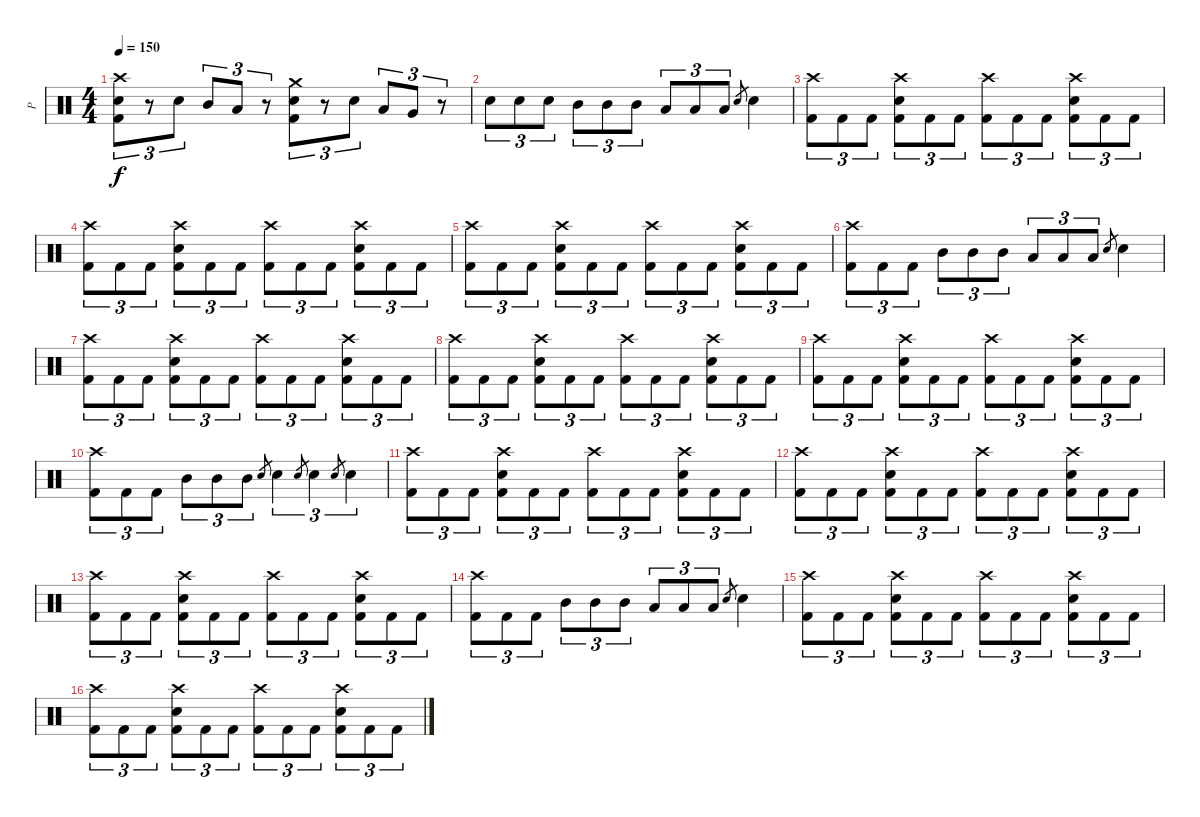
\track ("P" "P") {instrument percussion}
\staff {score}
\articulation defaults
\ts (4 4)
\tempo 150
\clef neutral
\ks c
("Crash high (hit)" "Electric Snare (hit)" "Kick (hit) 2").8{tu (3 2) dy f} r.8{tu (3 2)} "Electric Snare (hit)".8{tu (3 2)} "Mid Tom (hit)".8{tu (3 2)} "Low Tom (hit)".8{tu (3 2)} r.8{tu (3 2)} ("Crash medium (hit)" "Electric Snare (hit)" "Kick (hit) 2").8{tu (3 2)} r.8{tu (3 2)} "Electric Snare (hit)".8{tu (3 2)} "Low Tom (hit)".8{tu (3 2)} "Very Low Tom (hit)".8{tu (3 2)} r.8{tu (3 2)} |
"Electric Snare (hit)".8{tu (3 2)} "Electric Snare (hit)".8{tu (3 2)} "Electric Snare (hit)".8{tu (3 2)} "Mid Tom (hit)".8{tu (3 2)} "Mid Tom (hit)".8{tu (3 2)} "Mid Tom (hit)".8{tu (3 2)} "Low Tom (hit)".8{tu (3 2)} "Low Tom (hit)".8{tu (3 2)} "Low Tom (hit)".8{tu (3 2)} "Electric Snare (hit)".8{gr} "Electric Snare (hit)".4 |
("Crash high (hit)" "Kick (hit) 2").8{tu (3 2)} "Kick (hit) 2".8{tu (3 2)} "Kick (hit) 2".8{tu (3 2)} ("Crash high (hit)" "Electric Snare (hit)" "Kick (hit) 2").8{tu (3 2)} "Kick (hit) 2".8{tu (3 2)} "Kick (hit) 2".8{tu (3 2)} ("Crash high (hit)" "Kick (hit) 2").8{tu (3 2)} "Kick (hit) 2".8{tu (3 2)} "Kick (hit) 2".8{tu (3 2)} ("Crash high (hit)" "Electric Snare (hit)" "Kick (hit) 2").8{tu (3 2)} "Kick (hit) 2".8{tu (3 2)} "Kick (hit) 2".8{tu (3 2)} |
("Crash high (hit)" "Kick (hit) 2").8{tu (3 2)} "Kick (hit) 2".8{tu (3 2)} "Kick (hit) 2".8{tu (3 2)} ("Crash high (hit)" "Electric Snare (hit)" "Kick (hit) 2").8{tu (3 2)} "Kick (hit) 2".8{tu (3 2)} "Kick (hit) 2".8{tu (3 2)} ("Crash high (hit)" "Kick (hit) 2").8{tu (3 2)} "Kick (hit) 2".8{tu (3 2)} "Kick (hit) 2".8{tu (3 2)} ("Crash high (hit)" "Electric Snare (hit)" "Kick (hit) 2").8{tu (3 2)} "Kick (hit) 2".8{tu (3 2)} "Kick (hit) 2".8{tu (3 2)} |
("Crash high (hit)" "Kick (hit) 2").8{tu (3 2)} "Kick (hit) 2".8{tu (3 2)} "Kick (hit) 2".8{tu (3 2)} ("Crash high (hit)" "Electric Snare (hit)" "Kick (hit) 2").8{tu (3 2)} "Kick (hit) 2".8{tu (3 2)} "Kick (hit) 2".8{tu (3 2)} ("Crash high (hit)" "Kick (hit) 2").8{tu (3 2)} "Kick (hit) 2".8{tu (3 2)} "Kick (hit) 2".8{tu (3 2)} ("Crash high (hit)" "Electric Snare (hit)" "Kick (hit) 2").8{tu (3 2)} "Kick (hit) 2".8{tu (3 2)} "Kick (hit) 2".8{tu (3 2)} |
("Crash high (hit)" "Kick (hit) 2").8{tu (3 2)} "Kick (hit) 2".8{tu (3 2)} "Kick (hit) 2".8{tu (3 2)} "Mid Tom (hit)".8{tu (3 2)} "Mid Tom (hit)".8{tu (3 2)} "Mid Tom (hit)".8{tu (3 2)} "Low Tom (hit)".8{tu (3 2)} "Low Tom (hit)".8{tu (3 2)} "Low Tom (hit)".8{tu (3 2)} "Electric Snare (hit)".8{gr} "Electric Snare (hit)".4 |
("Crash high (hit)" "Kick (hit) 2").8{tu (3 2)} "Kick (hit) 2".8{tu (3 2)} "Kick (hit) 2".8{tu (3 2)} ("Crash high (hit)" "Electric Snare (hit)" "Kick (hit) 2").8{tu (3 2)} "Kick (hit) 2".8{tu (3 2)} "Kick (hit) 2".8{tu (3 2)} ("Crash high (hit)" "Kick (hit) 2").8{tu (3 2)} "Kick (hit) 2".8{tu (3 2)} "Kick (hit) 2".8{tu (3 2)} ("Crash high (hit)" "Electric Snare (hit)" "Kick (hit) 2").8{tu (3 2)} "Kick (hit) 2".8{tu (3 2)} "Kick (hit) 2".8{tu (3 2)} |
("Crash high (hit)" "Kick (hit) 2").8{tu (3 2)} "Kick (hit) 2".8{tu (3 2)} "Kick (hit) 2".8{tu (3 2)} ("Crash high (hit)" "Electric Snare (hit)" "Kick (hit) 2").8{tu (3 2)} "Kick (hit) 2".8{tu (3 2)} "Kick (hit) 2".8{tu (3 2)} ("Crash high (hit)" "Kick (hit) 2").8{tu (3 2)} "Kick (hit) 2".8{tu (3 2)} "Kick (hit) 2".8{tu (3 2)} ("Crash high (hit)" "Electric Snare (hit)" "Kick (hit) 2").8{tu (3 2)} "Kick (hit) 2".8{tu (3 2)} "Kick (hit) 2".8{tu (3 2)} |
("Crash high (hit)" "Kick (hit) 2").8{tu (3 2)} "Kick (hit) 2".8{tu (3 2)} "Kick (hit) 2".8{tu (3 2)} ("Crash high (hit)" "Electric Snare (hit)" "Kick (hit) 2").8{tu (3 2)} "Kick (hit) 2".8{tu (3 2)} "Kick (hit) 2".8{tu (3 2)} ("Crash high (hit)" "Kick (hit) 2").8{tu (3 2)} "Kick (hit) 2".8{tu (3 2)} "Kick (hit) 2".8{tu (3 2)} ("Crash high (hit)" "Electric Snare (hit)" "Kick (hit) 2").8{tu (3 2)} "Kick (hit) 2".8{tu (3 2)} "Kick (hit) 2".8{tu (3 2)} |
("Crash high (hit)" "Kick (hit) 2").8{tu (3 2)} "Kick (hit) 2".8{tu (3 2)} "Kick (hit) 2".8{tu (3 2)} "Mid Tom (hit)".8{tu (3 2)} "Mid Tom (hit)".8{tu (3 2)} "Mid Tom (hit)".8{tu (3 2)} "Electric Snare (hit)".8{gr} "Electric Snare (hit)".4{tu (3 2)} "Electric Snare (hit)".8{gr} "Electric Snare (hit)".4{tu (3 2)} "Electric Snare (hit)".8{gr} "Electric Snare (hit)".4{tu (3 2)} |
("Crash high (hit)" "Kick (hit) 2").8{tu (3 2)} "Kick (hit) 2".8{tu (3 2)} "Kick (hit) 2".8{tu (3 2)} ("Crash high (hit)" "Electric Snare (hit)" "Kick (hit) 2").8{tu (3 2)} "Kick (hit) 2".8{tu (3 2)} "Kick (hit) 2".8{tu (3 2)} ("Crash high (hit)" "Kick (hit) 2").8{tu (3 2)} "Kick (hit) 2".8{tu (3 2)} "Kick (hit) 2".8{tu (3 2)} ("Crash high (hit)" "Electric Snare (hit)" "Kick (hit) 2").8{tu (3 2)} "Kick (hit) 2".8{tu (3 2)} "Kick (hit) 2".8{tu (3 2)} |
("Crash high (hit)" "Kick (hit) 2").8{tu (3 2)} "Kick (hit) 2".8{tu (3 2)} "Kick (hit) 2".8{tu (3 2)} ("Crash high (hit)" "Electric Snare (hit)" "Kick (hit) 2").8{tu (3 2)} "Kick (hit) 2".8{tu (3 2)} "Kick (hit) 2".8{tu (3 2)} ("Crash high (hit)" "Kick (hit) 2").8{tu (3 2)} "Kick (hit) 2".8{tu (3 2)} "Kick (hit) 2".8{tu (3 2)} ("Crash high (hit)" "Electric Snare (hit)" "Kick (hit) 2").8{tu (3 2)} "Kick (hit) 2".8{tu (3 2)} "Kick (hit) 2".8{tu (3 2)} |
("Crash high (hit)" "Kick (hit) 2").8{tu (3 2)} "Kick (hit) 2".8{tu (3 2)} "Kick (hit) 2".8{tu (3 2)} ("Crash high (hit)" "Electric Snare (hit)" "Kick (hit) 2").8{tu (3 2)} "Kick (hit) 2".8{tu (3 2)} "Kick (hit) 2".8{tu (3 2)} ("Crash high (hit)" "Kick (hit) 2").8{tu (3 2)} "Kick (hit) 2".8{tu (3 2)} "Kick (hit) 2".8{tu (3 2)} ("Crash high (hit)" "Electric Snare (hit)" "Kick (hit) 2").8{tu (3 2)} "Kick (hit) 2".8{tu (3 2)} "Kick (hit) 2".8{tu (3 2)} |
("Crash high (hit)" "Kick (hit) 2").8{tu (3 2)} "Kick (hit) 2".8{tu (3 2)} "Kick (hit) 2".8{tu (3 2)} "Mid Tom (hit)".8{tu (3 2)} "Mid Tom (hit)".8{tu (3 2)} "Mid Tom (hit)".8{tu (3 2)} "Low Tom (hit)".8{tu (3 2)} "Low Tom (hit)".8{tu (3 2)} "Low Tom (hit)".8{tu (3 2)} "Electric Snare (hit)".8{gr} "Electric Snare (hit)".4 |
("Crash high (hit)" "Kick (hit) 2").8{tu (3 2)} "Kick (hit) 2".8{tu (3 2)} "Kick (hit) 2".8{tu (3 2)} ("Crash high (hit)" "Electric Snare (hit)" "Kick (hit) 2").8{tu (3 2)} "Kick (hit) 2".8{tu (3 2)} "Kick (hit) 2".8{tu (3 2)} ("Crash high (hit)" "Kick (hit) 2").8{tu (3 2)} "Kick (hit) 2".8{tu (3 2)} "Kick (hit) 2".8{tu (3 2)} ("Crash high (hit)" "Electric Snare (hit)" "Kick (hit) 2").8{tu (3 2)} "Kick (hit) 2".8{tu (3 2)} "Kick (hit) 2".8{tu (3 2)} |
("Crash high (hit)" "Kick (hit) 2").8{tu (3 2)} "Kick (hit) 2".8{tu (3 2)} "Kick (hit) 2".8{tu (3 2)} ("Crash high (hit)" "Electric Snare (hit)" "Kick (hit) 2").8{tu (3 2)} "Kick (hit) 2".8{tu (3 2)} "Kick (hit) 2".8{tu (3 2)} ("Crash high (hit)" "Kick (hit) 2").8{tu (3 2)} "Kick (hit) 2".8{tu (3 2)} "Kick (hit) 2".8{tu (3 2)} ("Crash high (hit)" "Electric Snare (hit)" "Kick (hit) 2").8{tu (3 2)} "Kick (hit) 2".8{tu (3 2)} "Kick (hit) 2".8{tu (3 2)}
